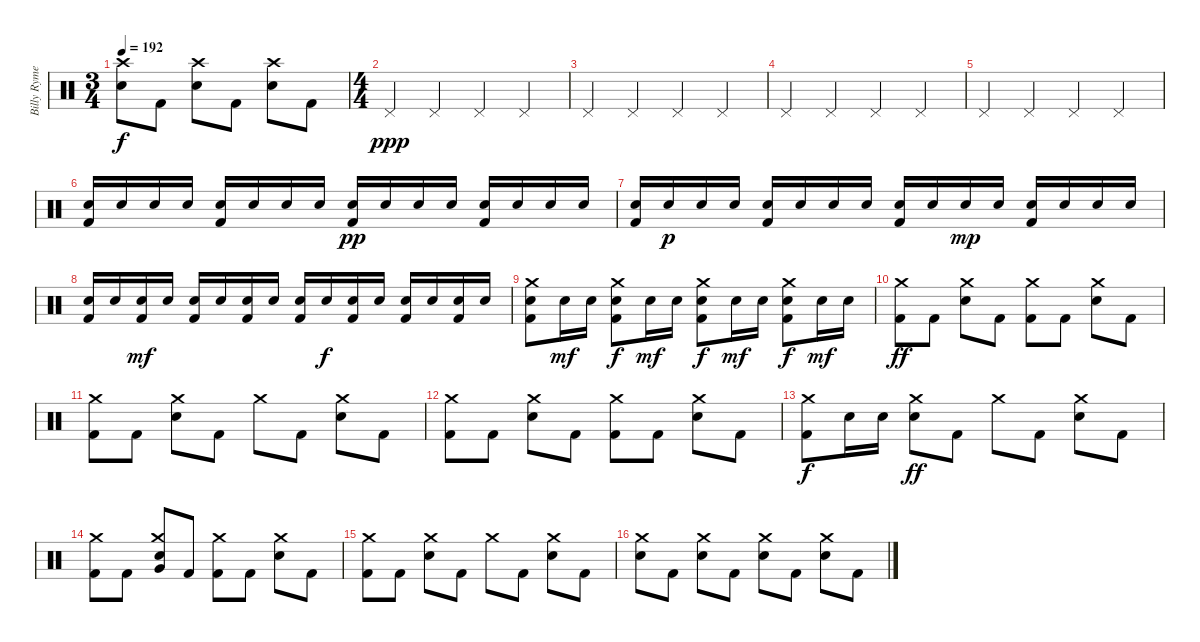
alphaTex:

\track ("Billy Rymer" "Billy Ryme") {instrument percussion}
\staff {score}
\articulation defaults
\ts (3 4)
\tempo 192
\clef neutral
\ks c
("Crash high (hit)" "Electric Snare (hit)").8{dy f} "Kick (hit) 2".8 ("Crash high (hit)" "Electric Snare (hit)").8 "Kick (hit) 2".8 ("Crash high (hit)" "Electric Snare (hit)").8 "Kick (hit) 2".8 |
\ts (4 4)
"Pedal Hi-Hat (hit)".4{dy ppp} "Pedal Hi-Hat (hit)".4 "Pedal Hi-Hat (hit)".4 "Pedal Hi-Hat (hit)".4 |
"Pedal Hi-Hat (hit)".4 "Pedal Hi-Hat (hit)".4 "Pedal Hi-Hat (hit)".4 "Pedal Hi-Hat (hit)".4 |
"Pedal Hi-Hat (hit)".4 "Pedal Hi-Hat (hit)".4 "Pedal Hi-Hat (hit)".4 "Pedal Hi-Hat (hit)".4 |
"Pedal Hi-Hat (hit)".4 "Pedal Hi-Hat (hit)".4 "Pedal Hi-Hat (hit)".4 "Pedal Hi-Hat (hit)".4 |
("Electric Snare (hit)" "Kick (hit) 2").16 "Electric Snare (hit)".16 "Electric Snare (hit)".16 "Electric Snare (hit)".16 ("Electric Snare (hit)" "Kick (hit) 2").16 "Electric Snare (hit)".16 "Electric Snare (hit)".16 "Electric Snare (hit)".16 ("Electric Snare (hit)" "Kick (hit) 2").16{dy pp} "Electric Snare (hit)".16 "Electric Snare (hit)".16 "Electric Snare (hit)".16 ("Electric Snare (hit)" "Kick (hit) 2").16 "Electric Snare (hit)".16 "Electric Snare (hit)".16 "Electric Snare (hit)".16 |
("Electric Snare (hit)" "Kick (hit) 2").16 "Electric Snare (hit)".16{dy p} "Electric Snare (hit)".16 "Electric Snare (hit)".16 ("Electric Snare (hit)" "Kick (hit) 2").16 "Electric Snare (hit)".16 "Electric Snare (hit)".16 "Electric Snare (hit)".16 ("Electric Snare (hit)" "Kick (hit) 2").16 "Electric Snare (hit)".16 "Electric Snare (hit)".16{dy mp} "Electric Snare (hit)".16 ("Electric Snare (hit)" "Kick (hit) 2").16 "Electric Snare (hit)".16 "Electric Snare (hit)".16 "Electric Snare (hit)".16 |
("Electric Snare (hit)" "Kick (hit) 2").16 "Electric Snare (hit)".16 ("Electric Snare (hit)" "Kick (hit) 2").16{dy mf} "Electric Snare (hit)".16 ("Electric Snare (hit)" "Kick (hit) 2").16 "Electric Snare (hit)".16 ("Electric Snare (hit)" "Kick (hit) 2").16 "Electric Snare (hit)".16 ("Electric Snare (hit)" "Kick (hit) 2").16 "Electric Snare (hit)".16{dy f} ("Electric Snare (hit)" "Kick (hit) 2").16 "Electric Snare (hit)".16 ("Electric Snare (hit)" "Kick (hit) 2").16 "Electric Snare (hit)".16 ("Electric Snare (hit)" "Kick (hit) 2").16 "Electric Snare (hit)".16 |
("Crash medium (hit)" "Electric Snare (hit)" "Kick (hit) 2").8 "Electric Snare (hit)".16{dy mf} "Electric Snare (hit)".16 ("Crash medium (hit)" "Electric Snare (hit)" "Kick (hit) 2").8{dy f} "Electric Snare (hit)".16{dy mf} "Electric Snare (hit)".16 ("Crash medium (hit)" "Electric Snare (hit)" "Kick (hit) 2").8{dy f} "Electric Snare (hit)".16{dy mf} "Electric Snare (hit)".16 ("Crash medium (hit)" "Electric Snare (hit)" "Kick (hit) 2").8{dy f} "Electric Snare (hit)".16{dy mf} "Electric Snare (hit)".16 |
("Crash medium (hit)" "Kick (hit) 2").8{dy ff} "Kick (hit) 2".8 ("Crash medium (hit)" "Electric Snare (hit)").8 "Kick (hit) 2".8 ("Crash medium (hit)" "Kick (hit) 2").8 "Kick (hit) 2".8 ("Crash medium (hit)" "Electric Snare (hit)").8 "Kick (hit) 2".8 |
("Crash medium (hit)" "Kick (hit) 2").8 "Kick (hit) 2".8 ("Crash medium (hit)" "Electric Snare (hit)").8 "Kick (hit) 2".8 "Crash medium (hit)".8 "Kick (hit) 2".8 ("Crash medium (hit)" "Electric Snare (hit)").8 "Kick (hit) 2".8 |
("Crash medium (hit)" "Kick (hit) 2").8 "Kick (hit) 2".8 ("Crash medium (hit)" "Electric Snare (hit)").8 "Kick (hit) 2".8 ("Crash medium (hit)" "Kick (hit) 2").8 "Kick (hit) 2".8 ("Crash medium (hit)" "Electric Snare (hit)").8 "Kick (hit) 2".8 |
("Crash medium (hit)" "Kick (hit) 2").8{dy f} "Electric Snare (hit)".16 "Electric Snare (hit)".16 ("Crash medium (hit)" "Electric Snare (hit)").8{dy ff} "Kick (hit) 2".8 "Crash medium (hit)".8 "Kick (hit) 2".8 ("Crash medium (hit)" "Electric Snare (hit)").8 "Kick (hit) 2".8 |
("Crash medium (hit)" "Kick (hit) 2").8 "Kick (hit) 2".8 ("Crash medium (hit)" "Very Low Tom (hit)" "Electric Snare (hit)").8 "Kick (hit) 2".8 ("Crash medium (hit)" "Kick (hit) 2").8 "Kick (hit) 2".8 ("Crash medium (hit)" "Electric Snare (hit)").8 "Kick (hit) 2".8 |
("Crash medium (hit)" "Kick (hit) 2").8 "Kick (hit) 2".8 ("Crash medium (hit)" "Electric Snare (hit)").8 "Kick (hit) 2".8 "Crash medium (hit)".8 "Kick (hit) 2".8 ("Crash medium (hit)" "Electric Snare (hit)").8 "Kick (hit) 2".8 |
("Crash medium (hit)" "Electric Snare (hit)").8 "Kick (hit) 2".8 ("Crash medium (hit)" "Electric Snare (hit)").8 "Kick (hit) 2".8 ("Crash medium (hit)" "Electric Snare (hit)").8 "Kick (hit) 2".8 ("Crash medium (hit)" "Electric Snare (hit)").8 "Kick (hit) 2".8
